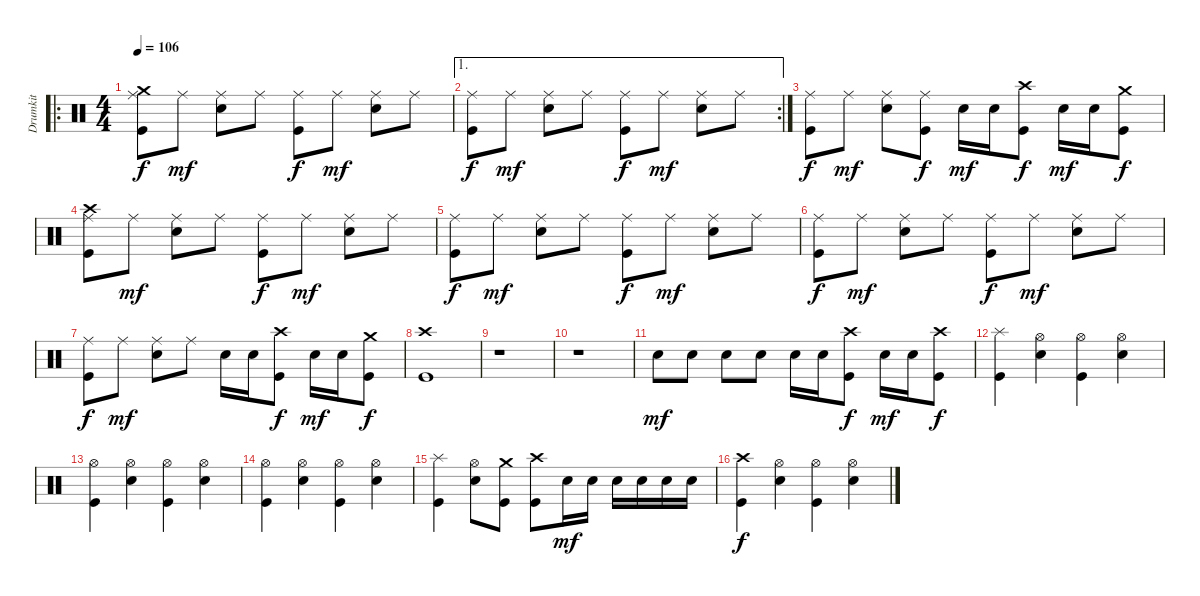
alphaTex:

\track ("Drumkit" "Drumkit") {instrument percussion}
\staff {score}
\articulation defaults
\ro
\ts (4 4)
\tempo 106
\clef neutral
\ks c
("Kick (hit)" "Crash medium (hit)" "Ride (middle)").8{dy f} "Ride (middle)".8{dy mf} ("Ride (middle)" "Snare (hit) 2").8 "Ride (middle)".8 ("Kick (hit)" "Ride (middle)").8{dy f} "Ride (middle)".8{dy mf} ("Ride (middle)" "Snare (hit) 2").8 "Ride (middle)".8 |
\ae 1
\rc 2
("Kick (hit)" "Ride (middle)").8{dy f} "Ride (middle)".8{dy mf} ("Ride (middle)" "Snare (hit) 2").8 "Ride (middle)".8 ("Kick (hit)" "Ride (middle)").8{dy f} "Ride (middle)".8{dy mf} ("Ride (middle)" "Snare (hit) 2").8 "Ride (middle)".8 |
("Kick (hit)" "Ride (middle)").8{dy f} "Ride (middle)".8{dy mf} ("Ride (middle)" "Snare (hit) 2").8 ("Kick (hit)" "Ride (middle)").8{dy f} "Snare (hit) 2".16{dy mf} "Snare (hit) 2".16 ("Kick (hit)" "Crash high (hit)").8{dy f} "Snare (hit) 2".16{dy mf} "Snare (hit) 2".16 ("Kick (hit)" "Crash medium (hit)").8{dy f} |
("Kick (hit)" "Crash high (hit)" "Ride (middle)").8 "Ride (middle)".8{dy mf} ("Ride (middle)" "Snare (hit) 2").8 "Ride (middle)".8 ("Kick (hit)" "Ride (middle)").8{dy f} "Ride (middle)".8{dy mf} ("Ride (middle)" "Snare (hit) 2").8 "Ride (middle)".8 |
("Kick (hit)" "Ride (middle)").8{dy f} "Ride (middle)".8{dy mf} ("Ride (middle)" "Snare (hit) 2").8 "Ride (middle)".8 ("Kick (hit)" "Ride (middle)").8{dy f} "Ride (middle)".8{dy mf} ("Ride (middle)" "Snare (hit) 2").8 "Ride (middle)".8 |
("Kick (hit)" "Ride (middle)").8{dy f} "Ride (middle)".8{dy mf} ("Ride (middle)" "Snare (hit) 2").8 "Ride (middle)".8 ("Kick (hit)" "Ride (middle)").8{dy f} "Ride (middle)".8{dy mf} ("Ride (middle)" "Snare (hit) 2").8 "Ride (middle)".8 |
("Kick (hit)" "Ride (middle)").8{dy f} "Ride (middle)".8{dy mf} ("Ride (middle)" "Snare (hit) 2").8 "Ride (middle)".8 "Snare (hit) 2".16 "Snare (hit) 2".16 ("Kick (hit)" "Crash high (hit)").8{dy f} "Snare (hit) 2".16{dy mf} "Snare (hit) 2".16 ("Kick (hit)" "Crash medium (hit)").8{dy f} |
("Kick (hit)" "Crash high (hit)").1 |
r.1 |
r.1 |
"Snare (hit) 2".8{dy mf} "Snare (hit) 2".8 "Snare (hit) 2".8 "Snare (hit) 2".8 "Snare (hit) 2".16 "Snare (hit) 2".16 ("Kick (hit)" "Crash high (hit)").8{dy f} "Snare (hit) 2".16{dy mf} "Snare (hit) 2".16 ("Kick (hit)" "Crash high (hit)").8{dy f} |
("Kick (hit)" "Splash (hit)").4 ("Hi-Hat (open)" "Snare (hit) 2").4 ("Kick (hit)" "Hi-Hat (open)").4 ("Hi-Hat (open)" "Snare (hit) 2").4 |
("Kick (hit)" "Hi-Hat (open)").4 ("Hi-Hat (open)" "Snare (hit) 2").4 ("Kick (hit)" "Hi-Hat (open)").4 ("Hi-Hat (open)" "Snare (hit) 2").4 |
("Kick (hit)" "Hi-Hat (open)").4 ("Hi-Hat (open)" "Snare (hit) 2").4 ("Kick (hit)" "Hi-Hat (open)").4 ("Hi-Hat (open)" "Snare (hit) 2").4 |
("Kick (hit)" "Splash (hit)").4 ("Hi-Hat (open)" "Snare (hit) 2").8 ("Kick (hit)" "Crash medium (hit)").8 ("Kick (hit)" "Crash high (hit)").8 "Snare (hit) 2".16{dy mf} "Snare (hit) 2".16 "Snare (hit) 2".16 "Snare (hit) 2".16 "Snare (hit) 2".16 "Snare (hit) 2".16 |
("Kick (hit)" "Crash high (hit)").4{dy f} ("Hi-Hat (open)" "Snare (hit) 2").4 ("Kick (hit)" "Hi-Hat (open)").4 ("Hi-Hat (open)" "Snare (hit) 2").4
